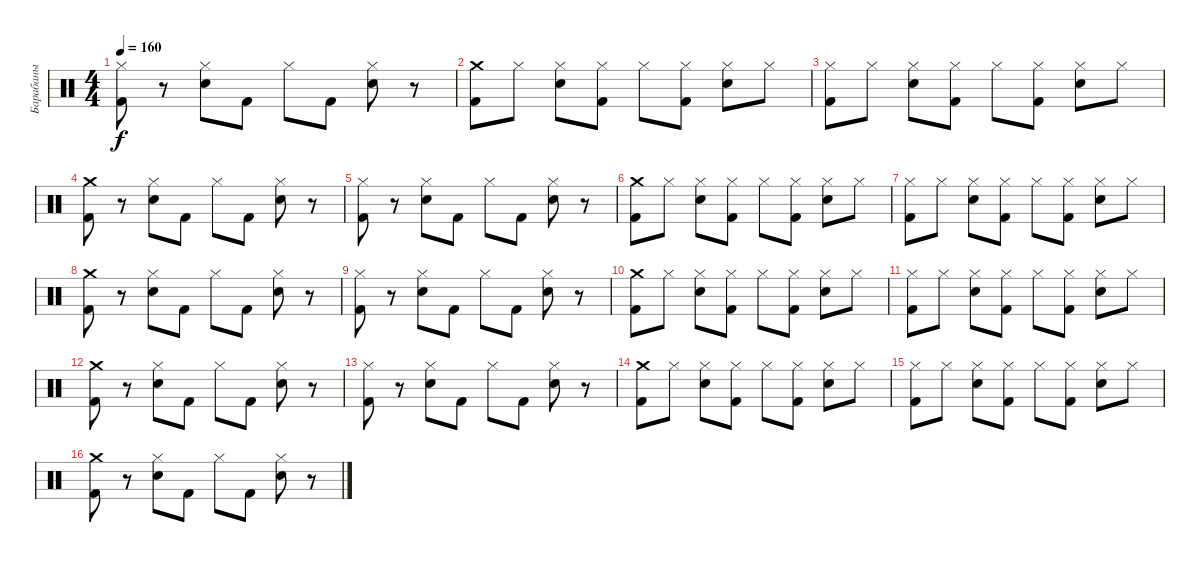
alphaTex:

\track ("Барабаны" "Барабаны") {instrument percussion}
\staff {score}
\articulation defaults
\ts (4 4)
\tempo 160
\clef neutral
\ks c
("Hi-Hat (closed)" "Kick (hit) 2").8{dy f} r.8 ("Hi-Hat (closed)" "Snare (hit) 2").8 "Kick (hit) 2".8 "Hi-Hat (closed)".8 "Kick (hit) 2".8 ("Hi-Hat (closed)" "Snare (hit) 2").8 r.8 |
("Crash medium (hit)" "Kick (hit) 2").8 "Hi-Hat (closed)".8 ("Hi-Hat (closed)" "Snare (hit) 2").8 ("Hi-Hat (closed)" "Kick (hit) 2").8 "Hi-Hat (closed)".8 ("Hi-Hat (closed)" "Kick (hit) 2").8 ("Hi-Hat (closed)" "Snare (hit) 2").8 "Hi-Hat (closed)".8 |
("Hi-Hat (closed)" "Kick (hit) 2").8 "Hi-Hat (closed)".8 ("Hi-Hat (closed)" "Snare (hit) 2").8 ("Hi-Hat (closed)" "Kick (hit) 2").8 "Hi-Hat (closed)".8 ("Hi-Hat (closed)" "Kick (hit) 2").8 ("Hi-Hat (closed)" "Snare (hit) 2").8 "Hi-Hat (closed)".8 |
("Crash medium (hit)" "Kick (hit) 2").8 r.8 ("Hi-Hat (closed)" "Snare (hit) 2").8 "Kick (hit) 2".8 "Hi-Hat (closed)".8 "Kick (hit) 2".8 ("Hi-Hat (closed)" "Snare (hit) 2").8 r.8 |
("Hi-Hat (closed)" "Kick (hit) 2").8 r.8 ("Hi-Hat (closed)" "Snare (hit) 2").8 "Kick (hit) 2".8 "Hi-Hat (closed)".8 "Kick (hit) 2".8 ("Hi-Hat (closed)" "Snare (hit) 2").8 r.8 |
("Crash medium (hit)" "Kick (hit) 2").8 "Hi-Hat (closed)".8 ("Hi-Hat (closed)" "Snare (hit) 2").8 ("Hi-Hat (closed)" "Kick (hit) 2").8 "Hi-Hat (closed)".8 ("Hi-Hat (closed)" "Kick (hit) 2").8 ("Hi-Hat (closed)" "Snare (hit) 2").8 "Hi-Hat (closed)".8 |
("Hi-Hat (closed)" "Kick (hit) 2").8 "Hi-Hat (closed)".8 ("Hi-Hat (closed)" "Snare (hit) 2").8 ("Hi-Hat (closed)" "Kick (hit) 2").8 "Hi-Hat (closed)".8 ("Hi-Hat (closed)" "Kick (hit) 2").8 ("Hi-Hat (closed)" "Snare (hit) 2").8 "Hi-Hat (closed)".8 |
("Crash medium (hit)" "Kick (hit) 2").8 r.8 ("Hi-Hat (closed)" "Snare (hit) 2").8 "Kick (hit) 2".8 "Hi-Hat (closed)".8 "Kick (hit) 2".8 ("Hi-Hat (closed)" "Snare (hit) 2").8 r.8 |
("Hi-Hat (closed)" "Kick (hit) 2").8 r.8 ("Hi-Hat (closed)" "Snare (hit) 2").8 "Kick (hit) 2".8 "Hi-Hat (closed)".8 "Kick (hit) 2".8 ("Hi-Hat (closed)" "Snare (hit) 2").8 r.8 |
("Crash medium (hit)" "Kick (hit) 2").8 "Hi-Hat (closed)".8 ("Hi-Hat (closed)" "Snare (hit) 2").8 ("Hi-Hat (closed)" "Kick (hit) 2").8 "Hi-Hat (closed)".8 ("Hi-Hat (closed)" "Kick (hit) 2").8 ("Hi-Hat (closed)" "Snare (hit) 2").8 "Hi-Hat (closed)".8 |
("Hi-Hat (closed)" "Kick (hit) 2").8 "Hi-Hat (closed)".8 ("Hi-Hat (closed)" "Snare (hit) 2").8 ("Hi-Hat (closed)" "Kick (hit) 2").8 "Hi-Hat (closed)".8 ("Hi-Hat (closed)" "Kick (hit) 2").8 ("Hi-Hat (closed)" "Snare (hit) 2").8 "Hi-Hat (closed)".8 |
("Crash medium (hit)" "Kick (hit) 2").8 r.8 ("Hi-Hat (closed)" "Snare (hit) 2").8 "Kick (hit) 2".8 "Hi-Hat (closed)".8 "Kick (hit) 2".8 ("Hi-Hat (closed)" "Snare (hit) 2").8 r.8 |
("Hi-Hat (closed)" "Kick (hit) 2").8 r.8 ("Hi-Hat (closed)" "Snare (hit) 2").8 "Kick (hit) 2".8 "Hi-Hat (closed)".8 "Kick (hit) 2".8 ("Hi-Hat (closed)" "Snare (hit) 2").8 r.8 |
("Crash medium (hit)" "Kick (hit) 2").8 "Hi-Hat (closed)".8 ("Hi-Hat (closed)" "Snare (hit) 2").8 ("Hi-Hat (closed)" "Kick (hit) 2").8 "Hi-Hat (closed)".8 ("Hi-Hat (closed)" "Kick (hit) 2").8 ("Hi-Hat (closed)" "Snare (hit) 2").8 "Hi-Hat (closed)".8 |
("Hi-Hat (closed)" "Kick (hit) 2").8 "Hi-Hat (closed)".8 ("Hi-Hat (closed)" "Snare (hit) 2").8 ("Hi-Hat (closed)" "Kick (hit) 2").8 "Hi-Hat (closed)".8 ("Hi-Hat (closed)" "Kick (hit) 2").8 ("Hi-Hat (closed)" "Snare (hit) 2").8 "Hi-Hat (closed)".8 |
("Crash medium (hit)" "Kick (hit) 2").8 r.8 ("Hi-Hat (closed)" "Snare (hit) 2").8 "Kick (hit) 2".8 "Hi-Hat (closed)".8 "Kick (hit) 2".8 ("Hi-Hat (closed)" "Snare (hit) 2").8 r.8
